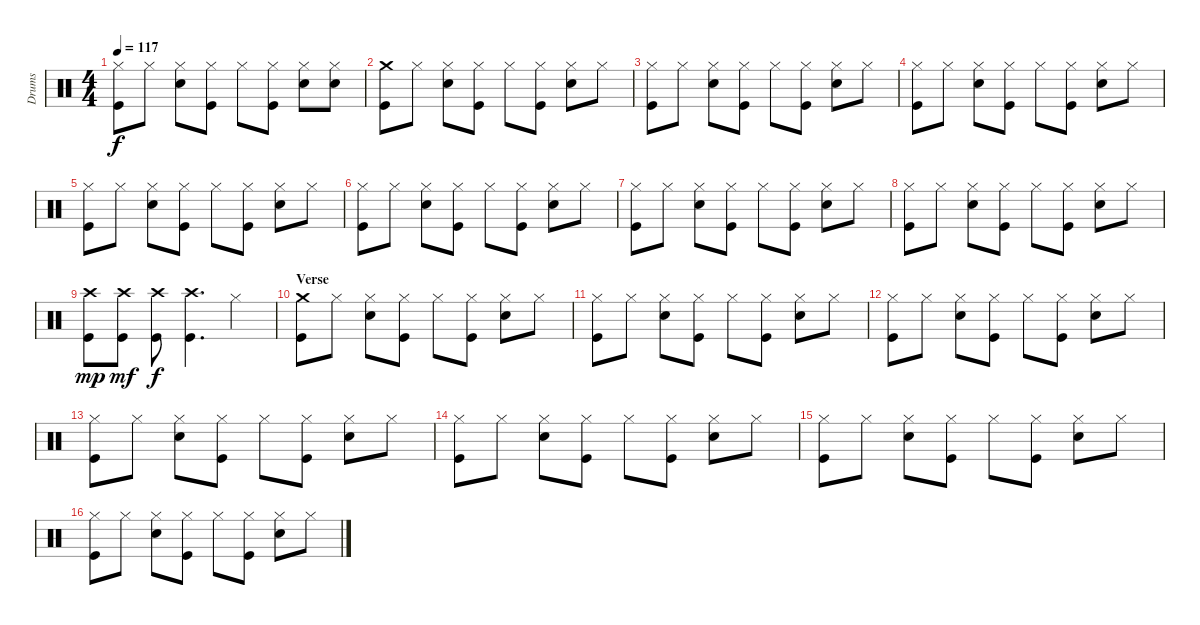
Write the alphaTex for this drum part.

\track ("Drums" "Drums") {instrument percussion}
\staff {score}
\articulation defaults
\ts (4 4)
\tempo 117
\clef neutral
\ks c
("Hi-Hat (closed)" "Kick (hit)").8{dy f} "Hi-Hat (closed)".8 ("Hi-Hat (closed)" "Snare (hit) 2").8 ("Hi-Hat (closed)" "Kick (hit)").8 "Hi-Hat (closed)".8 ("Hi-Hat (closed)" "Kick (hit)").8 ("Hi-Hat (closed)" "Snare (hit) 2").8 ("Hi-Hat (closed)" "Snare (hit) 2").8 |
("Crash medium (hit)" "Kick (hit)").8 "Hi-Hat (closed)".8 ("Hi-Hat (closed)" "Snare (hit) 2").8 ("Hi-Hat (closed)" "Kick (hit)").8 "Hi-Hat (closed)".8 ("Hi-Hat (closed)" "Kick (hit)").8 ("Hi-Hat (closed)" "Snare (hit) 2").8 "Hi-Hat (closed)".8 |
("Hi-Hat (closed)" "Kick (hit)").8 "Hi-Hat (closed)".8 ("Hi-Hat (closed)" "Snare (hit) 2").8 ("Hi-Hat (closed)" "Kick (hit)").8 "Hi-Hat (closed)".8 ("Hi-Hat (closed)" "Kick (hit)").8 ("Hi-Hat (closed)" "Snare (hit) 2").8 "Hi-Hat (closed)".8 |
("Hi-Hat (closed)" "Kick (hit)").8 "Hi-Hat (closed)".8 ("Hi-Hat (closed)" "Snare (hit) 2").8 ("Hi-Hat (closed)" "Kick (hit)").8 "Hi-Hat (closed)".8 ("Hi-Hat (closed)" "Kick (hit)").8 ("Hi-Hat (closed)" "Snare (hit) 2").8 "Hi-Hat (closed)".8 |
("Hi-Hat (closed)" "Kick (hit)").8 "Hi-Hat (closed)".8 ("Hi-Hat (closed)" "Snare (hit) 2").8 ("Hi-Hat (closed)" "Kick (hit)").8 "Hi-Hat (closed)".8 ("Hi-Hat (closed)" "Kick (hit)").8 ("Hi-Hat (closed)" "Snare (hit) 2").8 "Hi-Hat (closed)".8 |
("Hi-Hat (closed)" "Kick (hit)").8 "Hi-Hat (closed)".8 ("Hi-Hat (closed)" "Snare (hit) 2").8 ("Hi-Hat (closed)" "Kick (hit)").8 "Hi-Hat (closed)".8 ("Hi-Hat (closed)" "Kick (hit)").8 ("Hi-Hat (closed)" "Snare (hit) 2").8 "Hi-Hat (closed)".8 |
("Hi-Hat (closed)" "Kick (hit)").8 "Hi-Hat (closed)".8 ("Hi-Hat (closed)" "Snare (hit) 2").8 ("Hi-Hat (closed)" "Kick (hit)").8 "Hi-Hat (closed)".8 ("Hi-Hat (closed)" "Kick (hit)").8 ("Hi-Hat (closed)" "Snare (hit) 2").8 "Hi-Hat (closed)".8 |
("Hi-Hat (closed)" "Kick (hit)").8 "Hi-Hat (closed)".8 ("Hi-Hat (closed)" "Snare (hit) 2").8 ("Hi-Hat (closed)" "Kick (hit)").8 "Hi-Hat (closed)".8 ("Hi-Hat (closed)" "Kick (hit)").8 ("Hi-Hat (closed)" "Snare (hit) 2").8 "Hi-Hat (closed)".8 |
("Crash high (hit)" "Kick (hit)").8{dy mp} ("Crash high (hit)" "Kick (hit)").8{dy mf} ("Crash high (hit)" "Kick (hit)").8{dy f} ("Crash high (hit)" "Kick (hit)").4{d} "Hi-Hat (closed)".4 |
\section ("" "Verse")
("Crash medium (hit)" "Kick (hit)").8 "Hi-Hat (closed)".8 ("Hi-Hat (closed)" "Snare (hit) 2").8 ("Hi-Hat (closed)" "Kick (hit)").8 "Hi-Hat (closed)".8 ("Hi-Hat (closed)" "Kick (hit)").8 ("Hi-Hat (closed)" "Snare (hit) 2").8 "Hi-Hat (closed)".8 |
("Hi-Hat (closed)" "Kick (hit)").8 "Hi-Hat (closed)".8 ("Hi-Hat (closed)" "Snare (hit) 2").8 ("Hi-Hat (closed)" "Kick (hit)").8 "Hi-Hat (closed)".8 ("Hi-Hat (closed)" "Kick (hit)").8 ("Hi-Hat (closed)" "Snare (hit) 2").8 "Hi-Hat (closed)".8 |
("Hi-Hat (closed)" "Kick (hit)").8 "Hi-Hat (closed)".8 ("Hi-Hat (closed)" "Snare (hit) 2").8 ("Hi-Hat (closed)" "Kick (hit)").8 "Hi-Hat (closed)".8 ("Hi-Hat (closed)" "Kick (hit)").8 ("Hi-Hat (closed)" "Snare (hit) 2").8 "Hi-Hat (closed)".8 |
("Hi-Hat (closed)" "Kick (hit)").8 "Hi-Hat (closed)".8 ("Hi-Hat (closed)" "Snare (hit) 2").8 ("Hi-Hat (closed)" "Kick (hit)").8 "Hi-Hat (closed)".8 ("Hi-Hat (closed)" "Kick (hit)").8 ("Hi-Hat (closed)" "Snare (hit) 2").8 "Hi-Hat (closed)".8 |
("Hi-Hat (closed)" "Kick (hit)").8 "Hi-Hat (closed)".8 ("Hi-Hat (closed)" "Snare (hit) 2").8 ("Hi-Hat (closed)" "Kick (hit)").8 "Hi-Hat (closed)".8 ("Hi-Hat (closed)" "Kick (hit)").8 ("Hi-Hat (closed)" "Snare (hit) 2").8 "Hi-Hat (closed)".8 |
("Hi-Hat (closed)" "Kick (hit)").8 "Hi-Hat (closed)".8 ("Hi-Hat (closed)" "Snare (hit) 2").8 ("Hi-Hat (closed)" "Kick (hit)").8 "Hi-Hat (closed)".8 ("Hi-Hat (closed)" "Kick (hit)").8 ("Hi-Hat (closed)" "Snare (hit) 2").8 "Hi-Hat (closed)".8 |
("Hi-Hat (closed)" "Kick (hit)").8 "Hi-Hat (closed)".8 ("Hi-Hat (closed)" "Snare (hit) 2").8 ("Hi-Hat (closed)" "Kick (hit)").8 "Hi-Hat (closed)".8 ("Hi-Hat (closed)" "Kick (hit)").8 ("Hi-Hat (closed)" "Snare (hit) 2").8 "Hi-Hat (closed)".8
